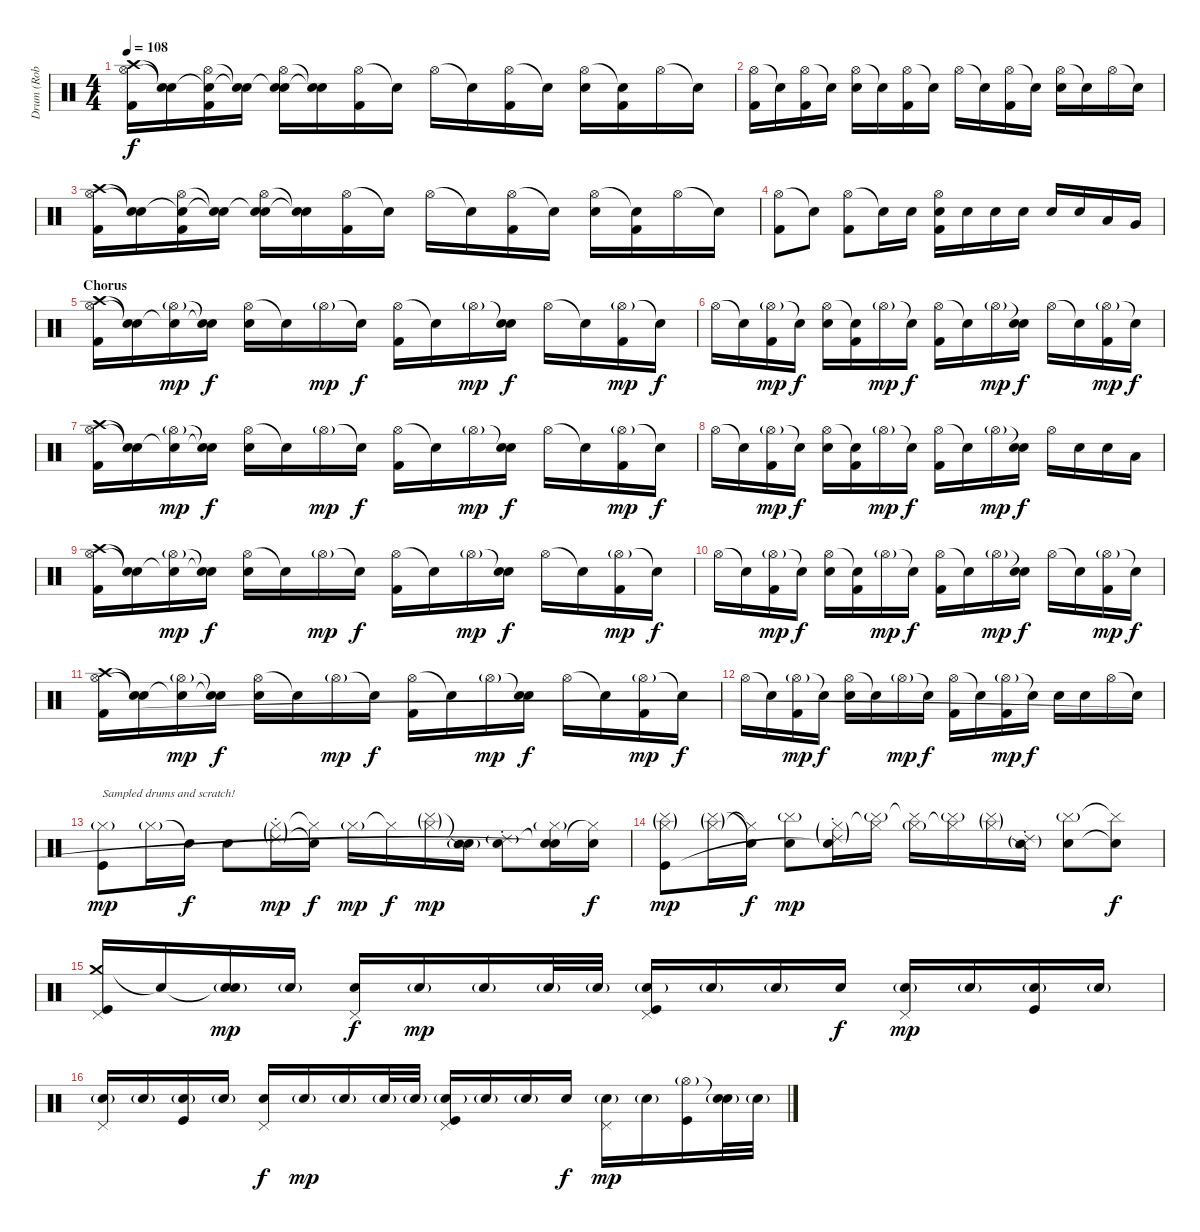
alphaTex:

\track ("Drum (Rob Bourdon)" "Drum (Rob ") {instrument percussion}
\staff {score}
\articulation defaults
\ts (4 4)
\tempo 108
\clef neutral
\ks c
("Crash high (hit)" "Hi-Hat (open)" "Kick (hit) 2").16{dy f volume 13} ("Snare (hit)"{t} "Snare (hit)"{t}).16 ("Snare (hit)"{t} "Hi-Hat (open)" "Kick (hit) 2").16 ("Snare (hit)"{t} "Snare (hit)"{t}).16 ("Snare (hit)"{t} "Hi-Hat (open)" "Electric Snare (hit)").16 ("Snare (hit)"{t} "Snare (hit)"{t}).16 ("Hi-Hat (open)" "Kick (hit) 2").16 "Snare (hit)"{t}.16 "Hi-Hat (open)".16 "Snare (hit)"{t}.16 ("Hi-Hat (open)" "Kick (hit) 2").16 "Snare (hit)"{t}.16 ("Hi-Hat (open)" "Electric Snare (hit)").16 ("Snare (hit)"{t} "Kick (hit) 2").16 "Hi-Hat (open)".16 "Snare (hit)"{t}.16 |
("Hi-Hat (open)" "Kick (hit) 2").16 "Snare (hit)"{t}.16 ("Hi-Hat (open)" "Kick (hit) 2").16 "Snare (hit)"{t}.16 ("Hi-Hat (open)" "Electric Snare (hit)").16 "Snare (hit)"{t}.16 ("Hi-Hat (open)" "Kick (hit) 2").16 "Snare (hit)"{t}.16 "Hi-Hat (open)".16 "Snare (hit)"{t}.16 ("Hi-Hat (open)" "Kick (hit) 2").16 "Snare (hit)"{t}.16 ("Hi-Hat (open)" "Electric Snare (hit)").16 "Snare (hit)"{t}.16 "Hi-Hat (open)".16 "Snare (hit)"{t}.16 |
("Crash high (hit)" "Hi-Hat (open)" "Kick (hit) 2").16 ("Snare (hit)"{t} "Snare (hit)"{t}).16 ("Snare (hit)"{t} "Hi-Hat (open)" "Kick (hit) 2").16 ("Snare (hit)"{t} "Snare (hit)"{t}).16 ("Snare (hit)"{t} "Hi-Hat (open)" "Electric Snare (hit)").16 ("Snare (hit)"{t} "Snare (hit)"{t}).16 ("Hi-Hat (open)" "Kick (hit) 2").16 "Snare (hit)"{t}.16 "Hi-Hat (open)".16 "Snare (hit)"{t}.16 ("Hi-Hat (open)" "Kick (hit) 2").16 "Snare (hit)"{t}.16 ("Hi-Hat (open)" "Electric Snare (hit)").16 ("Snare (hit)"{t} "Kick (hit) 2").16 "Hi-Hat (open)".16 "Snare (hit)"{t}.16 |
("Hi-Hat (open)" "Kick (hit) 2").8 "Snare (hit)"{t}.8 ("Hi-Hat (open)" "Kick (hit) 2").8 "Snare (hit)"{t}.16 "Electric Snare (hit)".16 ("Hi-Hat (open)" "Electric Snare (hit)" "Kick (hit) 2").16 "Electric Snare (hit)".16 "Electric Snare (hit)".16 "Electric Snare (hit)".16 "Electric Snare (hit)".16 "Electric Snare (hit)".16 "Low Tom (hit)".16 "Very Low Tom (hit)".16 |
\section ("" "Chorus")
("Crash high (hit)" "Hi-Hat (open)" "Kick (hit) 2").16 ("Snare (hit)"{t} "Snare (hit)"{t}).16 ("Snare (hit)"{t} "Hi-Hat (open)"{g}).16{dy mp} ("Snare (hit)"{t} "Snare (hit)"{t}).16{dy f} ("Hi-Hat (open)" "Electric Snare (hit)").16 "Snare (hit)"{t}.16 "Hi-Hat (open)"{g}.16{dy mp} "Snare (hit)"{t}.16{dy f} ("Hi-Hat (open)" "Kick (hit) 2").16 "Snare (hit)"{t}.16 "Hi-Hat (open)"{g}.16{dy mp} ("Snare (hit)"{t} "Electric Snare (hit)").16{dy f} "Hi-Hat (open)".16 "Snare (hit)"{t}.16 ("Hi-Hat (open)"{g} "Kick (hit) 2").16{dy mp} "Snare (hit)"{t}.16{dy f} |
"Hi-Hat (open)".16 "Snare (hit)"{t}.16 ("Hi-Hat (open)"{g} "Kick (hit) 2").16{dy mp} "Snare (hit)"{t}.16{dy f} ("Hi-Hat (open)" "Electric Snare (hit)").16 ("Snare (hit)"{t} "Kick (hit) 2").16 "Hi-Hat (open)"{g}.16{dy mp} "Snare (hit)"{t}.16{dy f} ("Hi-Hat (open)" "Kick (hit) 2").16 "Snare (hit)"{t}.16 "Hi-Hat (open)"{g}.16{dy mp} ("Snare (hit)"{t} "Electric Snare (hit)").16{dy f} "Hi-Hat (open)".16 "Snare (hit)"{t}.16 ("Hi-Hat (open)"{g} "Kick (hit) 2").16{dy mp} "Snare (hit)"{t}.16{dy f} |
("Crash high (hit)" "Hi-Hat (open)" "Kick (hit) 2").16 ("Snare (hit)"{t} "Snare (hit)"{t}).16 ("Snare (hit)"{t} "Hi-Hat (open)"{g}).16{dy mp} ("Snare (hit)"{t} "Snare (hit)"{t}).16{dy f} ("Hi-Hat (open)" "Electric Snare (hit)").16 "Snare (hit)"{t}.16 "Hi-Hat (open)"{g}.16{dy mp} "Snare (hit)"{t}.16{dy f} ("Hi-Hat (open)" "Kick (hit) 2").16 "Snare (hit)"{t}.16 "Hi-Hat (open)"{g}.16{dy mp} ("Snare (hit)"{t} "Electric Snare (hit)").16{dy f} "Hi-Hat (open)".16 "Snare (hit)"{t}.16 ("Hi-Hat (open)"{g} "Kick (hit) 2").16{dy mp} "Snare (hit)"{t}.16{dy f} |
"Hi-Hat (open)".16 "Snare (hit)"{t}.16 ("Hi-Hat (open)"{g} "Kick (hit) 2").16{dy mp} "Snare (hit)"{t}.16{dy f} ("Hi-Hat (open)" "Electric Snare (hit)").16 ("Snare (hit)"{t} "Kick (hit) 2").16 "Hi-Hat (open)"{g}.16{dy mp} "Snare (hit)"{t}.16{dy f} ("Hi-Hat (open)" "Kick (hit) 2").16 "Snare (hit)"{t}.16 "Hi-Hat (open)"{g}.16{dy mp} ("Snare (hit)"{t} "Electric Snare (hit)").16{dy f} "Hi-Hat (open)".16 "Electric Snare (hit)".16 "Electric Snare (hit)".16 "Low Tom (hit)".16 |
("Crash high (hit)" "Hi-Hat (open)" "Kick (hit) 2").16 ("Snare (hit)"{t} "Snare (hit)"{t}).16 ("Snare (hit)"{t} "Hi-Hat (open)"{g}).16{dy mp} ("Snare (hit)"{t} "Snare (hit)"{t}).16{dy f} ("Hi-Hat (open)" "Electric Snare (hit)").16 "Snare (hit)"{t}.16 "Hi-Hat (open)"{g}.16{dy mp} "Snare (hit)"{t}.16{dy f} ("Hi-Hat (open)" "Kick (hit) 2").16 "Snare (hit)"{t}.16 "Hi-Hat (open)"{g}.16{dy mp} ("Snare (hit)"{t} "Electric Snare (hit)").16{dy f} "Hi-Hat (open)".16 "Snare (hit)"{t}.16 ("Hi-Hat (open)"{g} "Kick (hit) 2").16{dy mp} "Snare (hit)"{t}.16{dy f} |
"Hi-Hat (open)".16 "Snare (hit)"{t}.16 ("Hi-Hat (open)"{g} "Kick (hit) 2").16{dy mp} "Snare (hit)"{t}.16{dy f} ("Hi-Hat (open)" "Electric Snare (hit)").16 ("Snare (hit)"{t} "Kick (hit) 2").16 "Hi-Hat (open)"{g}.16{dy mp} "Snare (hit)"{t}.16{dy f} ("Hi-Hat (open)" "Kick (hit) 2").16 "Snare (hit)"{t}.16 "Hi-Hat (open)"{g}.16{dy mp} ("Snare (hit)"{t} "Electric Snare (hit)").16{dy f} "Hi-Hat (open)".16 "Snare (hit)"{t}.16 ("Hi-Hat (open)"{g} "Kick (hit) 2").16{dy mp} "Snare (hit)"{t}.16{dy f} |
("Crash high (hit)" "Hi-Hat (open)" "Kick (hit) 2").16 ("Snare (hit)"{t} "Snare (hit)"{t}).16 ("Snare (hit)"{t} "Hi-Hat (open)"{g}).16{dy mp} ("Snare (hit)"{t} "Snare (hit)"{t}).16{dy f} ("Hi-Hat (open)" "Electric Snare (hit)").16 "Snare (hit)"{t}.16 "Hi-Hat (open)"{g}.16{dy mp} "Snare (hit)"{t}.16{dy f} ("Hi-Hat (open)" "Kick (hit) 2").16 "Snare (hit)"{t}.16 "Hi-Hat (open)"{g}.16{dy mp} ("Snare (hit)"{t} "Electric Snare (hit)").16{dy f} "Hi-Hat (open)".16 "Snare (hit)"{t}.16 ("Hi-Hat (open)"{g} "Kick (hit) 2").16{dy mp} "Snare (hit)"{t}.16{dy f} |
"Hi-Hat (open)".16 "Snare (hit)"{t}.16 ("Hi-Hat (open)"{g} "Kick (hit) 2").16{dy mp} "Snare (hit)"{t}.16{dy f} ("Hi-Hat (open)" "Electric Snare (hit)").16 "Snare (hit)"{t}.16 "Hi-Hat (open)"{g}.16{dy mp} "Snare (hit)"{t}.16{dy f} ("Hi-Hat (open)" "Kick (hit) 2").16 "Snare (hit)"{t}.16 ("Hi-Hat (open)"{g} "Kick (hit) 2").16{dy mp} "Snare (hit)"{t}.16{dy f} "Electric Snare (hit)".16 "Electric Snare (hit)".16 "Hi-Hat (open)".16 "Snare (hit)"{t}.16 |
("Hi-Hat (closed)"{g} "Kick (hit)").8{txt "Sampled drums and scratch!" dy mp volume 14} "Hi-Hat (closed)"{g}.16 "Snare (hit)"{t}.16{dy f} "Snare (hit) 2".8 ("Ride (choke) 2"{g} "Hi-Hat (closed)"{g}).16{dy mp} ("Snare (hit)"{t} "Hi-Hat (closed)"{t}).16{dy f} "Hi-Hat (closed)"{g}.16{dy mp} "Hi-Hat (closed)"{t}.16{dy f} ("Cymbal (hit)"{g} "Hi-Hat (closed)"{g}).16{dy mp} ("Snare (hit)"{t} "Snare (side stick) 2"{g}).16 ("Ride (choke) 2"{g} "Snare (hit) 2").8 ("Snare (hit)"{t} "Hi-Hat (closed)"{g} "Snare (hit) 2"{t}).16 ("Hi-Hat (closed)"{t} "Snare (hit) 2").16{dy f} |
("Cymbal (hit)"{g} "Hi-Hat (closed)"{g} "Kick (hit)").8{dy mp} ("Cymbal (hit)"{g} "Hi-Hat (closed)"{g}).16 ("Snare (hit)"{t} "Hi-Hat (closed)"{t}).16{dy f} ("Cymbal (hit)"{g} "Snare (hit) 2").8{dy mp} ("Ride (choke) 2"{g} "Hi-Hat (closed)"{g} "Snare (hit)"{t}).16 ("Cymbal (hit)"{g} "Hi-Hat (closed)"{t}).16 ("Cymbal (hit)"{t} "Hi-Hat (closed)"{g}).16 ("Cymbal (hit)"{g} "Hi-Hat (closed)"{t}).16 ("Cymbal (hit)"{g} "Hi-Hat (closed)"{g}).16 ("Ride (choke) 2"{g} "Snare (side stick) 2"{g}).16 ("Cymbal (hit)"{g} "Snare (hit) 2").8 ("Cymbal (hit)"{t} "Snare (hit)"{t}).8{dy f} |
("Crash medium (hit)" "Pedal Hi-Hat (hit)" "Kick (hit)").16{volume 13} "Snare (hit)"{t}.16 ("Snare (hit)"{t} "Snare (hit) 2"{g}).16{dy mp volume 6} "Snare (hit) 2"{g}.16 ("Pedal Hi-Hat (hit)" "Electric Snare (hit)").16{dy f volume 13} "Snare (hit) 2"{g}.16{dy mp volume 6} "Snare (hit) 2"{g}.16 "Snare (hit) 2"{g}.32 "Snare (hit) 2"{g}.32 ("Pedal Hi-Hat (hit)" "Snare (hit) 2"{g} "Kick (hit)").16{volume 13} "Snare (hit) 2"{g}.16{volume 6} "Snare (hit) 2"{g}.16 "Electric Snare (hit)".16{dy f volume 13} ("Pedal Hi-Hat (hit)" "Snare (hit) 2"{g}).16{dy mp volume 6} "Snare (hit) 2"{g}.16 ("Snare (hit) 2"{g} "Kick (hit)").16{volume 13} "Snare (hit) 2"{g}.16{volume 6} |
("Pedal Hi-Hat (hit)" "Snare (hit) 2"{g}).16{volume 6} "Snare (hit) 2"{g}.16 ("Snare (hit) 2"{g} "Kick (hit)").16{volume 13} "Snare (hit) 2"{g}.16{volume 6} ("Pedal Hi-Hat (hit)" "Electric Snare (hit)").16{dy f volume 13} "Snare (hit) 2"{g}.16{dy mp volume 6} "Snare (hit) 2"{g}.16 "Snare (hit) 2"{g}.32 "Snare (hit) 2"{g}.32 ("Pedal Hi-Hat (hit)" "Snare (hit) 2"{g} "Kick (hit)").16{volume 13} "Snare (hit) 2"{g}.16{volume 6} "Snare (hit) 2"{g}.16 "Electric Snare (hit)".16{dy f volume 13} ("Pedal Hi-Hat (hit)" "Snare (hit) 2"{g}).16{dy mp volume 6} "Snare (hit) 2"{g}.16 ("Hi-Hat (open)"{g} "Kick (hit)").16{volume 13} ("Snare (hit)"{t} "Snare (hit) 2"{g}).32{volume 6} "Snare (hit) 2"{g}.32
